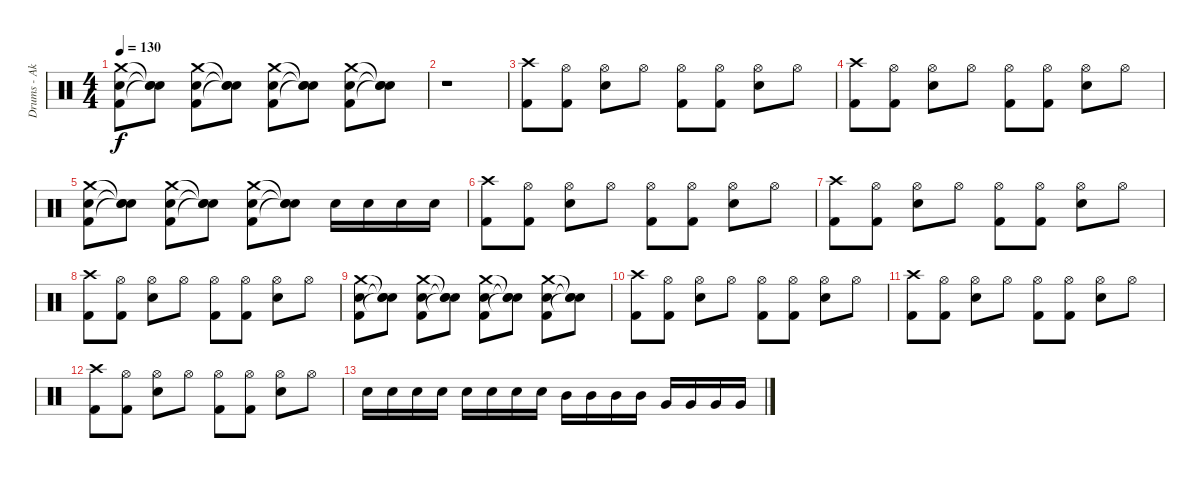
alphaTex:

\track ("Drums - Aki Hakala/Janne" "Drums - Ak") {instrument percussion}
\staff {score}
\articulation defaults
\ts (4 4)
\tempo 130
\clef neutral
\ks c
("Crash medium (hit)" "Electric Snare (hit)" "Kick (hit) 2").8{dy f} ("Snare (hit)"{t} "Electric Snare (hit)"{t} "Snare (hit)"{t}).8 ("Crash medium (hit)" "Electric Snare (hit)" "Kick (hit) 2").8 ("Snare (hit)"{t} "Snare (hit)"{t} "Snare (hit)"{t}).8 ("Crash medium (hit)" "Electric Snare (hit)" "Kick (hit) 2").8 ("Snare (hit)"{t} "Snare (hit)"{t} "Snare (hit)"{t}).8 ("Crash medium (hit)" "Electric Snare (hit)" "Kick (hit) 2").8 ("Snare (hit)"{t} "Snare (hit)"{t} "Snare (hit)"{t}).8 |
r.1 |
("Crash high (hit)" "Kick (hit) 2").8 ("Hi-Hat (open)" "Kick (hit) 2").8 ("Hi-Hat (open)" "Electric Snare (hit)").8 "Hi-Hat (open)".8 ("Hi-Hat (open)" "Kick (hit) 2").8 ("Hi-Hat (open)" "Kick (hit) 2").8 ("Hi-Hat (open)" "Electric Snare (hit)").8 "Hi-Hat (open)".8 |
("Crash high (hit)" "Kick (hit) 2").8 ("Hi-Hat (open)" "Kick (hit) 2").8 ("Hi-Hat (open)" "Electric Snare (hit)").8 "Hi-Hat (open)".8 ("Hi-Hat (open)" "Kick (hit) 2").8 ("Hi-Hat (open)" "Kick (hit) 2").8 ("Hi-Hat (open)" "Electric Snare (hit)").8 "Hi-Hat (open)".8 |
("Crash medium (hit)" "Electric Snare (hit)" "Kick (hit) 2").8 ("Snare (hit)"{t} "Electric Snare (hit)"{t} "Snare (hit)"{t}).8 ("Crash medium (hit)" "Electric Snare (hit)" "Kick (hit) 2").8 ("Snare (hit)"{t} "Snare (hit)"{t} "Snare (hit)"{t}).8 ("Crash medium (hit)" "Electric Snare (hit)" "Kick (hit) 2").8 ("Snare (hit)"{t} "Snare (hit)"{t} "Snare (hit)"{t}).8 "Electric Snare (hit)".16 "Electric Snare (hit)".16 "Electric Snare (hit)".16 "Electric Snare (hit)".16 |
("Crash high (hit)" "Kick (hit) 2").8 ("Hi-Hat (open)" "Kick (hit) 2").8 ("Hi-Hat (open)" "Electric Snare (hit)").8 "Hi-Hat (open)".8 ("Hi-Hat (open)" "Kick (hit) 2").8 ("Hi-Hat (open)" "Kick (hit) 2").8 ("Hi-Hat (open)" "Electric Snare (hit)").8 "Hi-Hat (open)".8 |
("Crash high (hit)" "Kick (hit) 2").8 ("Hi-Hat (open)" "Kick (hit) 2").8 ("Hi-Hat (open)" "Electric Snare (hit)").8 "Hi-Hat (open)".8 ("Hi-Hat (open)" "Kick (hit) 2").8 ("Hi-Hat (open)" "Kick (hit) 2").8 ("Hi-Hat (open)" "Electric Snare (hit)").8 "Hi-Hat (open)".8 |
("Crash high (hit)" "Kick (hit) 2").8 ("Hi-Hat (open)" "Kick (hit) 2").8 ("Hi-Hat (open)" "Electric Snare (hit)").8 "Hi-Hat (open)".8 ("Hi-Hat (open)" "Kick (hit) 2").8 ("Hi-Hat (open)" "Kick (hit) 2").8 ("Hi-Hat (open)" "Electric Snare (hit)").8 "Hi-Hat (open)".8 |
("Crash medium (hit)" "Electric Snare (hit)" "Kick (hit) 2").8 ("Snare (hit)"{t} "Electric Snare (hit)"{t} "Snare (hit)"{t}).8 ("Crash medium (hit)" "Electric Snare (hit)" "Kick (hit) 2").8 ("Snare (hit)"{t} "Snare (hit)"{t} "Snare (hit)"{t}).8 ("Crash medium (hit)" "Electric Snare (hit)" "Kick (hit) 2").8 ("Snare (hit)"{t} "Snare (hit)"{t} "Snare (hit)"{t}).8 ("Crash medium (hit)" "Electric Snare (hit)" "Kick (hit) 2").8 ("Snare (hit)"{t} "Snare (hit)"{t} "Snare (hit)"{t}).8 |
("Crash high (hit)" "Kick (hit) 2").8 ("Hi-Hat (open)" "Kick (hit) 2").8 ("Hi-Hat (open)" "Electric Snare (hit)").8 "Hi-Hat (open)".8 ("Hi-Hat (open)" "Kick (hit) 2").8 ("Hi-Hat (open)" "Kick (hit) 2").8 ("Hi-Hat (open)" "Electric Snare (hit)").8 "Hi-Hat (open)".8 |
("Crash high (hit)" "Kick (hit) 2").8 ("Hi-Hat (open)" "Kick (hit) 2").8 ("Hi-Hat (open)" "Electric Snare (hit)").8 "Hi-Hat (open)".8 ("Hi-Hat (open)" "Kick (hit) 2").8 ("Hi-Hat (open)" "Kick (hit) 2").8 ("Hi-Hat (open)" "Electric Snare (hit)").8 "Hi-Hat (open)".8 |
("Crash high (hit)" "Kick (hit) 2").8 ("Hi-Hat (open)" "Kick (hit) 2").8 ("Hi-Hat (open)" "Electric Snare (hit)").8 "Hi-Hat (open)".8 ("Hi-Hat (open)" "Kick (hit) 2").8 ("Hi-Hat (open)" "Kick (hit) 2").8 ("Hi-Hat (open)" "Electric Snare (hit)").8 "Hi-Hat (open)".8 |
"Electric Snare (hit)".16 "Electric Snare (hit)".16 "Electric Snare (hit)".16 "Electric Snare (hit)".16 "Electric Snare (hit)".16 "Electric Snare (hit)".16 "Electric Snare (hit)".16 "Electric Snare (hit)".16 "Mid Tom (hit)".16 "Mid Tom (hit)".16 "Mid Tom (hit)".16 "Mid Tom (hit)".16 "Very Low Tom (hit)".16 "Very Low Tom (hit)".16 "Very Low Tom (hit)".16 "Very Low Tom (hit)".16
